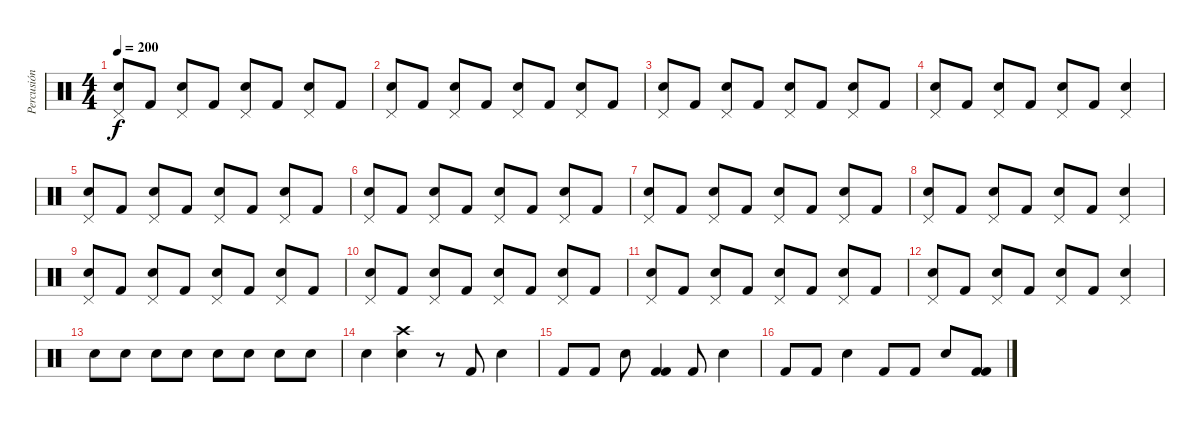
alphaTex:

\track ("Percusión" "Percusión") {instrument percussion}
\staff {score}
\articulation defaults
\ts (4 4)
\tempo 200
\clef neutral
\ks c
("Electric Snare (hit)" "Pedal Hi-Hat (hit)").8{dy f} "Kick (hit) 2".8 ("Electric Snare (hit)" "Pedal Hi-Hat (hit)").8 "Kick (hit) 2".8 ("Electric Snare (hit)" "Pedal Hi-Hat (hit)").8 "Kick (hit) 2".8 ("Electric Snare (hit)" "Pedal Hi-Hat (hit)").8 "Kick (hit) 2".8 |
("Electric Snare (hit)" "Pedal Hi-Hat (hit)").8 "Kick (hit) 2".8 ("Electric Snare (hit)" "Pedal Hi-Hat (hit)").8 "Kick (hit) 2".8 ("Electric Snare (hit)" "Pedal Hi-Hat (hit)").8 "Kick (hit) 2".8 ("Electric Snare (hit)" "Pedal Hi-Hat (hit)").8 "Kick (hit) 2".8 |
("Electric Snare (hit)" "Pedal Hi-Hat (hit)").8 "Kick (hit) 2".8 ("Electric Snare (hit)" "Pedal Hi-Hat (hit)").8 "Kick (hit) 2".8 ("Electric Snare (hit)" "Pedal Hi-Hat (hit)").8 "Kick (hit) 2".8 ("Electric Snare (hit)" "Pedal Hi-Hat (hit)").8 "Kick (hit) 2".8 |
("Electric Snare (hit)" "Pedal Hi-Hat (hit)").8 "Kick (hit) 2".8 ("Electric Snare (hit)" "Pedal Hi-Hat (hit)").8 "Kick (hit) 2".8 ("Electric Snare (hit)" "Pedal Hi-Hat (hit)").8 "Kick (hit) 2".8 ("Electric Snare (hit)" "Pedal Hi-Hat (hit)").4 |
("Electric Snare (hit)" "Pedal Hi-Hat (hit)").8 "Kick (hit) 2".8 ("Electric Snare (hit)" "Pedal Hi-Hat (hit)").8 "Kick (hit) 2".8 ("Electric Snare (hit)" "Pedal Hi-Hat (hit)").8 "Kick (hit) 2".8 ("Electric Snare (hit)" "Pedal Hi-Hat (hit)").8 "Kick (hit) 2".8 |
("Electric Snare (hit)" "Pedal Hi-Hat (hit)").8 "Kick (hit) 2".8 ("Electric Snare (hit)" "Pedal Hi-Hat (hit)").8 "Kick (hit) 2".8 ("Electric Snare (hit)" "Pedal Hi-Hat (hit)").8 "Kick (hit) 2".8 ("Electric Snare (hit)" "Pedal Hi-Hat (hit)").8 "Kick (hit) 2".8 |
("Electric Snare (hit)" "Pedal Hi-Hat (hit)").8 "Kick (hit) 2".8 ("Electric Snare (hit)" "Pedal Hi-Hat (hit)").8 "Kick (hit) 2".8 ("Electric Snare (hit)" "Pedal Hi-Hat (hit)").8 "Kick (hit) 2".8 ("Electric Snare (hit)" "Pedal Hi-Hat (hit)").8 "Kick (hit) 2".8 |
("Electric Snare (hit)" "Pedal Hi-Hat (hit)").8 "Kick (hit) 2".8 ("Electric Snare (hit)" "Pedal Hi-Hat (hit)").8 "Kick (hit) 2".8 ("Electric Snare (hit)" "Pedal Hi-Hat (hit)").8 "Kick (hit) 2".8 ("Electric Snare (hit)" "Pedal Hi-Hat (hit)").4 |
("Electric Snare (hit)" "Pedal Hi-Hat (hit)").8 "Kick (hit) 2".8 ("Electric Snare (hit)" "Pedal Hi-Hat (hit)").8 "Kick (hit) 2".8 ("Electric Snare (hit)" "Pedal Hi-Hat (hit)").8 "Kick (hit) 2".8 ("Electric Snare (hit)" "Pedal Hi-Hat (hit)").8 "Kick (hit) 2".8 |
("Electric Snare (hit)" "Pedal Hi-Hat (hit)").8 "Kick (hit) 2".8 ("Electric Snare (hit)" "Pedal Hi-Hat (hit)").8 "Kick (hit) 2".8 ("Electric Snare (hit)" "Pedal Hi-Hat (hit)").8 "Kick (hit) 2".8 ("Electric Snare (hit)" "Pedal Hi-Hat (hit)").8 "Kick (hit) 2".8 |
("Electric Snare (hit)" "Pedal Hi-Hat (hit)").8 "Kick (hit) 2".8 ("Electric Snare (hit)" "Pedal Hi-Hat (hit)").8 "Kick (hit) 2".8 ("Electric Snare (hit)" "Pedal Hi-Hat (hit)").8 "Kick (hit) 2".8 ("Electric Snare (hit)" "Pedal Hi-Hat (hit)").8 "Kick (hit) 2".8 |
("Electric Snare (hit)" "Pedal Hi-Hat (hit)").8 "Kick (hit) 2".8 ("Electric Snare (hit)" "Pedal Hi-Hat (hit)").8 "Kick (hit) 2".8 ("Electric Snare (hit)" "Pedal Hi-Hat (hit)").8 "Kick (hit) 2".8 ("Electric Snare (hit)" "Pedal Hi-Hat (hit)").4 |
"Electric Snare (hit)".8{volume 10} "Electric Snare (hit)".8{volume 11} "Electric Snare (hit)".8{volume 12} "Electric Snare (hit)".8{volume 13} "Electric Snare (hit)".8{volume 14} "Electric Snare (hit)".8{volume 15} "Electric Snare (hit)".8{volume 16} "Electric Snare (hit)".8 |
"Electric Snare (hit)".4 ("Electric Snare (hit)" "Crash high (hit)").4 r.8 "Kick (hit) 2".8 "Electric Snare (hit)".4 |
"Kick (hit) 2".8 "Kick (hit) 2".8 "Electric Snare (hit)".8 ("Kick (hit) 2" "Kick (hit) 2").4 "Kick (hit) 2".8 "Electric Snare (hit)".4 |
"Kick (hit) 2".8 "Kick (hit) 2".8 "Electric Snare (hit)".4 "Kick (hit) 2".8 "Kick (hit) 2".8 "Electric Snare (hit)".8 ("Kick (hit) 2" "Kick (hit) 2").8
